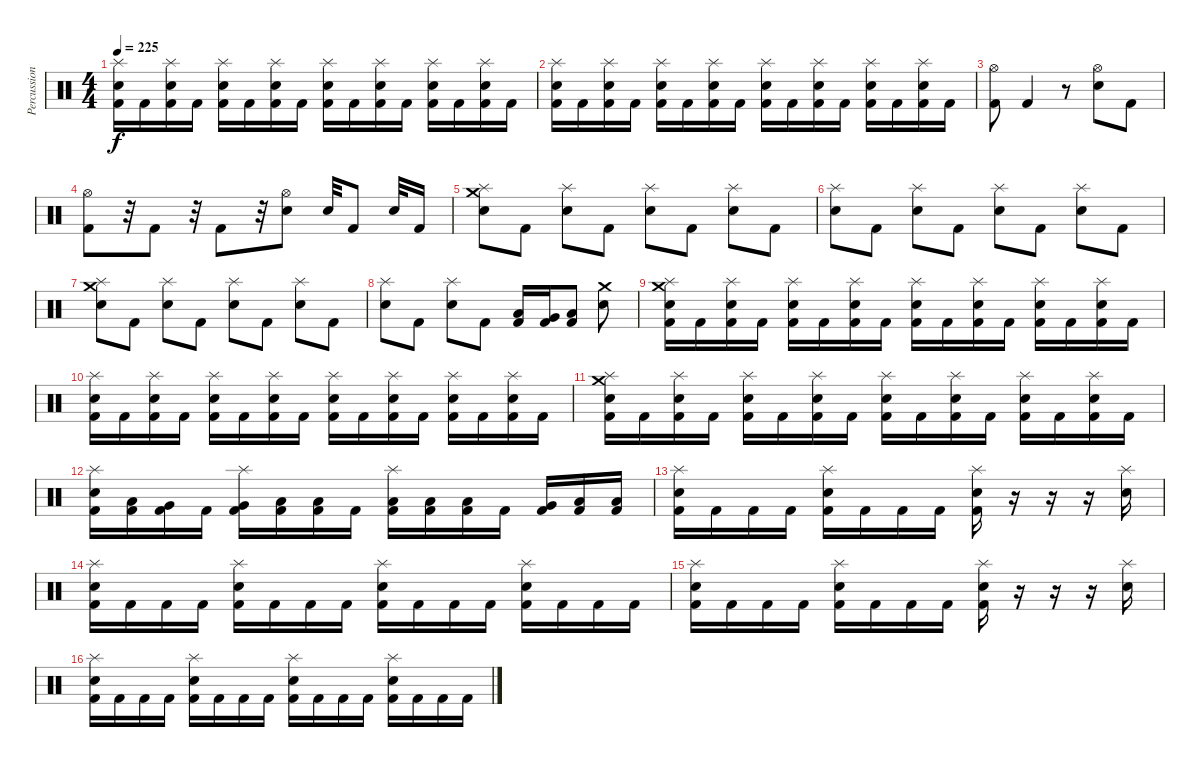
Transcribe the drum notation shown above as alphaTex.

\track ("Percussion" "Percussion") {instrument percussion}
\staff {score}
\articulation defaults
\ts (4 4)
\tempo 225
\clef neutral
\ks c
("Splash (hit)" "Snare (hit) 2" "Kick (hit) 2").16{dy f} "Kick (hit) 2".16 ("Splash (hit)" "Snare (hit) 2" "Kick (hit) 2").16 "Kick (hit) 2".16 ("Splash (hit)" "Snare (hit) 2" "Kick (hit) 2").16 "Kick (hit) 2".16 ("Splash (hit)" "Snare (hit) 2" "Kick (hit) 2").16 "Kick (hit) 2".16 ("Splash (hit)" "Snare (hit) 2" "Kick (hit) 2").16 "Kick (hit) 2".16 ("Splash (hit)" "Snare (hit) 2" "Kick (hit) 2").16 "Kick (hit) 2".16 ("Splash (hit)" "Snare (hit) 2" "Kick (hit) 2").16 "Kick (hit) 2".16 ("Splash (hit)" "Snare (hit) 2" "Kick (hit) 2").16 "Kick (hit) 2".16 |
("Splash (hit)" "Snare (hit) 2" "Kick (hit) 2").16 "Kick (hit) 2".16 ("Splash (hit)" "Snare (hit) 2" "Kick (hit) 2").16 "Kick (hit) 2".16 ("Splash (hit)" "Snare (hit) 2" "Kick (hit) 2").16 "Kick (hit) 2".16 ("Splash (hit)" "Snare (hit) 2" "Kick (hit) 2").16 "Kick (hit) 2".16 ("Splash (hit)" "Snare (hit) 2" "Kick (hit) 2").16 "Kick (hit) 2".16 ("Splash (hit)" "Snare (hit) 2" "Kick (hit) 2").16 "Kick (hit) 2".16 ("Splash (hit)" "Snare (hit) 2" "Kick (hit) 2").16 "Kick (hit) 2".16 ("Splash (hit)" "Snare (hit) 2" "Kick (hit) 2").16 "Kick (hit) 2".16 |
("Kick (hit) 2" "Hi-Hat (open)").8 "Kick (hit) 2".4 r.8 ("Hi-Hat (open)" "Snare (hit) 2").8 "Kick (hit) 2".8 |
("Kick (hit) 2" "Hi-Hat (open)").8 r.32 "Kick (hit) 2".8 r.32 "Kick (hit) 2".8 r.32 ("Snare (hit) 2" "Hi-Hat (open)").8 "Snare (hit)".32 "Kick (hit) 2".8 "Snare (hit)".32 "Kick (hit) 2".16 |
("Crash medium (hit)" "Splash (hit)" "Snare (hit) 2").8 "Kick (hit) 2".8 ("Splash (hit)" "Snare (hit) 2").8 "Kick (hit) 2".8 ("Splash (hit)" "Snare (hit) 2").8 "Kick (hit) 2".8 ("Splash (hit)" "Snare (hit) 2").8 "Kick (hit) 2".8 |
("Splash (hit)" "Snare (hit) 2").8 "Kick (hit) 2".8 ("Splash (hit)" "Snare (hit) 2").8 "Kick (hit) 2".8 ("Splash (hit)" "Snare (hit) 2").8 "Kick (hit) 2".8 ("Splash (hit)" "Snare (hit) 2").8 "Kick (hit) 2".8 |
("Crash medium (hit)" "Splash (hit)" "Snare (hit) 2").8 "Kick (hit) 2".8 ("Splash (hit)" "Snare (hit) 2").8 "Kick (hit) 2".8 ("Splash (hit)" "Snare (hit) 2").8 "Kick (hit) 2".8 ("Splash (hit)" "Snare (hit) 2").8 "Kick (hit) 2".8 |
("Splash (hit)" "Snare (hit) 2").8 "Kick (hit) 2".8 ("Splash (hit)" "Snare (hit) 2").8 "Kick (hit) 2".8 ("Kick (hit) 2" "Low Tom (hit)").16 ("Kick (hit) 2" "Very Low Tom (hit)").16 ("Kick (hit) 2" "Low Floor Tom (hit)").8 ("Crash medium (hit)" "Snare (hit) 2").8 |
("Crash medium (hit)" "Splash (hit)" "Snare (hit) 2" "Kick (hit) 2").16 "Kick (hit) 2".16 ("Splash (hit)" "Snare (hit) 2" "Kick (hit) 2").16 "Kick (hit) 2".16 ("Splash (hit)" "Snare (hit) 2" "Kick (hit) 2").16 "Kick (hit) 2".16 ("Splash (hit)" "Snare (hit) 2" "Kick (hit) 2").16 "Kick (hit) 2".16 ("Splash (hit)" "Snare (hit) 2" "Kick (hit) 2").16 "Kick (hit) 2".16 ("Splash (hit)" "Snare (hit) 2" "Kick (hit) 2").16 "Kick (hit) 2".16 ("Splash (hit)" "Snare (hit) 2" "Kick (hit) 2").16 "Kick (hit) 2".16 ("Splash (hit)" "Snare (hit) 2" "Kick (hit) 2").16 "Kick (hit) 2".16 |
("Splash (hit)" "Snare (hit) 2" "Kick (hit) 2").16 "Kick (hit) 2".16 ("Splash (hit)" "Snare (hit) 2" "Kick (hit) 2").16 "Kick (hit) 2".16 ("Splash (hit)" "Snare (hit) 2" "Kick (hit) 2").16 "Kick (hit) 2".16 ("Splash (hit)" "Snare (hit) 2" "Kick (hit) 2").16 "Kick (hit) 2".16 ("Splash (hit)" "Snare (hit) 2" "Kick (hit) 2").16 "Kick (hit) 2".16 ("Splash (hit)" "Snare (hit) 2" "Kick (hit) 2").16 "Kick (hit) 2".16 ("Splash (hit)" "Snare (hit) 2" "Kick (hit) 2").16 "Kick (hit) 2".16 ("Splash (hit)" "Snare (hit) 2" "Kick (hit) 2").16 "Kick (hit) 2".16 |
("Crash medium (hit)" "Splash (hit)" "Snare (hit) 2" "Kick (hit) 2").16 "Kick (hit) 2".16 ("Splash (hit)" "Snare (hit) 2" "Kick (hit) 2").16 "Kick (hit) 2".16 ("Splash (hit)" "Snare (hit) 2" "Kick (hit) 2").16 "Kick (hit) 2".16 ("Splash (hit)" "Snare (hit) 2" "Kick (hit) 2").16 "Kick (hit) 2".16 ("Splash (hit)" "Snare (hit) 2" "Kick (hit) 2").16 "Kick (hit) 2".16 ("Splash (hit)" "Snare (hit) 2" "Kick (hit) 2").16 "Kick (hit) 2".16 ("Splash (hit)" "Snare (hit) 2" "Kick (hit) 2").16 "Kick (hit) 2".16 ("Splash (hit)" "Snare (hit) 2" "Kick (hit) 2").16 "Kick (hit) 2".16 |
("Splash (hit)" "Snare (hit) 2" "Kick (hit) 2").16 ("Low Tom (hit)" "Kick (hit) 2").16 ("Very Low Tom (hit)" "Kick (hit) 2").16 "Kick (hit) 2".16 ("Splash (hit)" "Very Low Tom (hit)" "Kick (hit) 2").16 ("Low Floor Tom (hit)" "Kick (hit) 2").16 ("Low Floor Tom (hit)" "Kick (hit) 2").16 "Kick (hit) 2".16 ("Splash (hit)" "Low Floor Tom (hit)" "Kick (hit) 2").16 ("Low Floor Tom (hit)" "Kick (hit) 2").16 ("Low Floor Tom (hit)" "Kick (hit) 2").16 "Kick (hit) 2".16 ("Very Low Tom (hit)" "Kick (hit) 2").16 ("Low Floor Tom (hit)" "Kick (hit) 2").16 ("Low Floor Tom (hit)" "Kick (hit) 2").16 |
("Splash (hit)" "Snare (hit) 2" "Kick (hit) 2").16 "Kick (hit) 2".16 "Kick (hit) 2".16 "Kick (hit) 2".16 ("Splash (hit)" "Snare (hit) 2" "Kick (hit) 2").16 "Kick (hit) 2".16 "Kick (hit) 2".16 "Kick (hit) 2".16 ("Splash (hit)" "Snare (hit) 2" "Kick (hit) 2").16 r.16 r.16 r.16 ("Splash (hit)" "Snare (hit) 2").16 |
("Splash (hit)" "Snare (hit) 2" "Kick (hit) 2").16 "Kick (hit) 2".16 "Kick (hit) 2".16 "Kick (hit) 2".16 ("Splash (hit)" "Snare (hit) 2" "Kick (hit) 2").16 "Kick (hit) 2".16 "Kick (hit) 2".16 "Kick (hit) 2".16 ("Splash (hit)" "Snare (hit) 2" "Kick (hit) 2").16 "Kick (hit) 2".16 "Kick (hit) 2".16 "Kick (hit) 2".16 ("Splash (hit)" "Snare (hit) 2" "Kick (hit) 2").16 "Kick (hit) 2".16 "Kick (hit) 2".16 "Kick (hit) 2".16 |
("Splash (hit)" "Snare (hit) 2" "Kick (hit) 2").16 "Kick (hit) 2".16 "Kick (hit) 2".16 "Kick (hit) 2".16 ("Splash (hit)" "Snare (hit) 2" "Kick (hit) 2").16 "Kick (hit) 2".16 "Kick (hit) 2".16 "Kick (hit) 2".16 ("Splash (hit)" "Snare (hit) 2" "Kick (hit) 2").16 r.16 r.16 r.16 ("Splash (hit)" "Snare (hit) 2").16 |
("Splash (hit)" "Snare (hit) 2" "Kick (hit) 2").16 "Kick (hit) 2".16 "Kick (hit) 2".16 "Kick (hit) 2".16 ("Splash (hit)" "Snare (hit) 2" "Kick (hit) 2").16 "Kick (hit) 2".16 "Kick (hit) 2".16 "Kick (hit) 2".16 ("Splash (hit)" "Snare (hit) 2" "Kick (hit) 2").16 "Kick (hit) 2".16 "Kick (hit) 2".16 "Kick (hit) 2".16 ("Splash (hit)" "Snare (hit) 2" "Kick (hit) 2").16 "Kick (hit) 2".16 "Kick (hit) 2".16 "Kick (hit) 2".16
